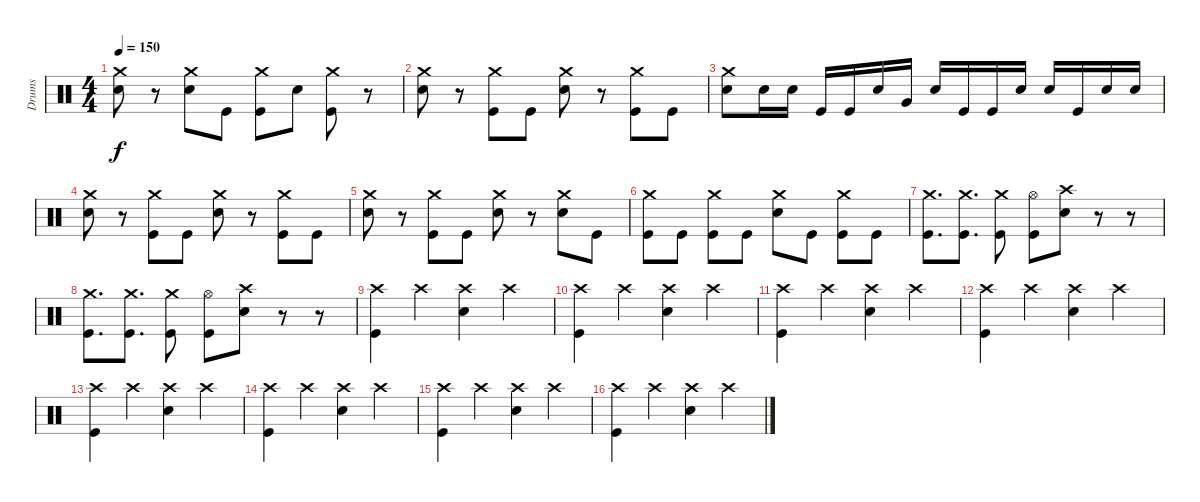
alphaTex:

\track ("Drums" "Drums") {instrument percussion}
\staff {score}
\articulation defaults
\ts (4 4)
\tempo 150
\clef neutral
\ks c
("Crash medium (hit)" "Electric Snare (hit)").8{dy f} r.8 ("Crash medium (hit)" "Electric Snare (hit)").8 "Kick (hit)".8 ("Crash medium (hit)" "Kick (hit)").8 "Electric Snare (hit)".8 ("Crash medium (hit)" "Kick (hit)").8 r.8 |
("Crash medium (hit)" "Electric Snare (hit)").8 r.8 ("Crash medium (hit)" "Kick (hit)").8 "Kick (hit)".8 ("Crash medium (hit)" "Electric Snare (hit)").8 r.8 ("Crash medium (hit)" "Kick (hit)").8 "Kick (hit)".8 |
("Crash medium (hit)" "Electric Snare (hit)").8 "Electric Snare (hit)".16 "Electric Snare (hit)".16 "Kick (hit)".16 "Kick (hit)".16 "Electric Snare (hit)".16 "Very Low Tom (hit)".16 "Electric Snare (hit)".16 "Kick (hit)".16 "Kick (hit)".16 "Electric Snare (hit)".16 "Electric Snare (hit)".16 "Kick (hit)".16 "Electric Snare (hit)".16 "Electric Snare (hit)".16 |
("Crash medium (hit)" "Electric Snare (hit)").8 r.8 ("Crash medium (hit)" "Kick (hit)").8 "Kick (hit)".8 ("Crash medium (hit)" "Electric Snare (hit)").8 r.8 ("Crash medium (hit)" "Kick (hit)").8 "Kick (hit)".8 |
("Crash medium (hit)" "Electric Snare (hit)").8 r.8 ("Crash medium (hit)" "Kick (hit)").8 "Kick (hit)".8 ("Crash medium (hit)" "Electric Snare (hit)").8 r.8 ("Crash medium (hit)" "Electric Snare (hit)").8 "Kick (hit)".8 |
("Crash medium (hit)" "Kick (hit)").8 "Kick (hit)".8 ("Crash medium (hit)" "Kick (hit)").8 "Kick (hit)".8 ("Crash medium (hit)" "Electric Snare (hit)").8 "Kick (hit)".8 ("Crash medium (hit)" "Kick (hit)").8 "Kick (hit)".8 |
("Crash medium (hit)" "Kick (hit)").8{d} ("Crash medium (hit)" "Kick (hit)").8{d} ("Crash medium (hit)" "Kick (hit)").8 ("Hi-Hat (open)" "Kick (hit)").8 ("Crash high (hit)" "Electric Snare (hit)").8 r.8 r.8 |
("Crash medium (hit)" "Kick (hit)").8{d} ("Crash medium (hit)" "Kick (hit)").8{d} ("Crash medium (hit)" "Kick (hit)").8 ("Hi-Hat (open)" "Kick (hit)").8 ("Crash high (hit)" "Electric Snare (hit)").8 r.8 r.8 |
("Crash high (hit)" "Kick (hit)").4 "Crash high (hit)".4 ("Crash high (hit)" "Electric Snare (hit)").4 "Crash high (hit)".4 |
("Crash high (hit)" "Kick (hit)").4 "Crash high (hit)".4 ("Crash high (hit)" "Electric Snare (hit)").4 "Crash high (hit)".4 |
("Crash high (hit)" "Kick (hit)").4 "Crash high (hit)".4 ("Crash high (hit)" "Electric Snare (hit)").4 "Crash high (hit)".4 |
("Crash high (hit)" "Kick (hit)").4 "Crash high (hit)".4 ("Crash high (hit)" "Electric Snare (hit)").4 "Crash high (hit)".4 |
("Crash high (hit)" "Kick (hit)").4 "Crash high (hit)".4 ("Crash high (hit)" "Electric Snare (hit)").4 "Crash high (hit)".4 |
("Crash high (hit)" "Kick (hit)").4 "Crash high (hit)".4 ("Crash high (hit)" "Electric Snare (hit)").4 "Crash high (hit)".4 |
("Crash high (hit)" "Kick (hit)").4 "Crash high (hit)".4 ("Crash high (hit)" "Electric Snare (hit)").4 "Crash high (hit)".4 |
("Crash high (hit)" "Kick (hit)").4 "Crash high (hit)".4 ("Crash high (hit)" "Electric Snare (hit)").4 "Crash high (hit)".4
